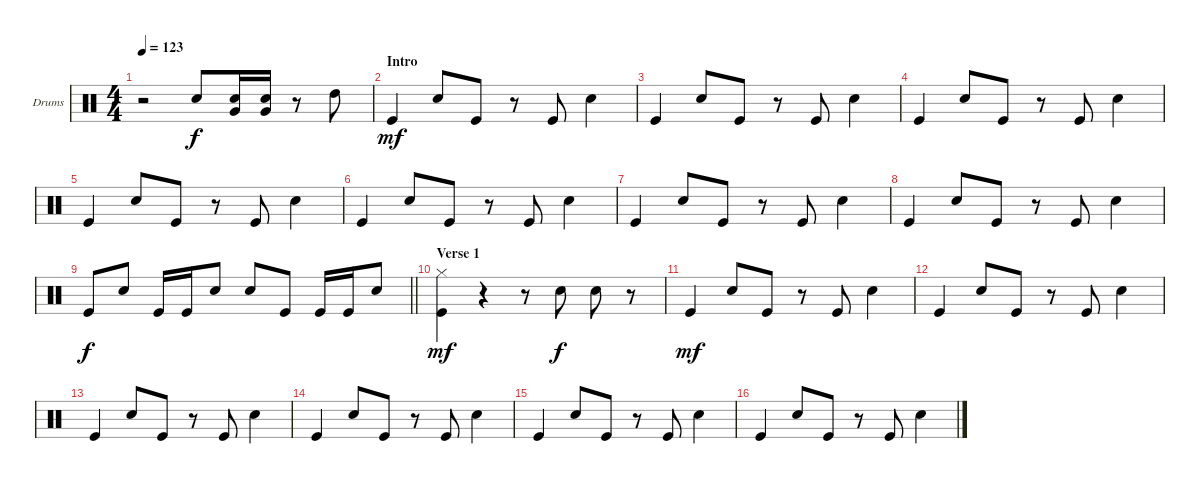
\defaultSystemsLayout 4
\bracketExtendMode groupsimilarinstruments
\firstSystemTrackNameOrientation horizontal
\otherSystemsTrackNameOrientation horizontal
\track ("Drumkit" "Drums") {instrument percussion}
\staff {score}
\articulation defaults
\ts (4 4)
\tempo 123
\clef neutral
\ks c
r.2{dy f} "Snare (hit) 2".8 ("Snare (hit) 2" "Very Low Tom (hit)").16 ("Snare (hit) 2" "Very Low Tom (hit)").16 r.8 "High Tom (hit)".8 |
\section ("" "Intro")
"Kick (hit)".4{dy mf} "Snare (hit) 2".8 "Kick (hit)".8 r.8 "Kick (hit)".8 "Snare (hit) 2".4 |
"Kick (hit)".4 "Snare (hit) 2".8 "Kick (hit)".8 r.8 "Kick (hit)".8 "Snare (hit) 2".4 |
"Kick (hit)".4 "Snare (hit) 2".8 "Kick (hit)".8 r.8 "Kick (hit)".8 "Snare (hit) 2".4 |
"Kick (hit)".4 "Snare (hit) 2".8 "Kick (hit)".8 r.8 "Kick (hit)".8 "Snare (hit) 2".4 |
"Kick (hit)".4 "Snare (hit) 2".8 "Kick (hit)".8 r.8 "Kick (hit)".8 "Snare (hit) 2".4 |
"Kick (hit)".4 "Snare (hit) 2".8 "Kick (hit)".8 r.8 "Kick (hit)".8 "Snare (hit) 2".4 |
"Kick (hit)".4 "Snare (hit) 2".8 "Kick (hit)".8 r.8 "Kick (hit)".8 "Snare (hit) 2".4 |
\barLineRight lightlight "Kick (hit)".8{dy f} "Snare (hit) 2".8 "Kick (hit)".16 "Kick (hit)".16 "Snare (hit) 2".8 "Snare (hit) 2".8 "Kick (hit)".8 "Kick (hit)".16 "Kick (hit)".16 "Snare (hit) 2".8
|
\section ("" "Verse 1")
("Kick (hit)" "Hi-Hat (closed)").4{dy mf} r.4 r.8 "Snare (hit) 2".8{dy f} "Snare (hit) 2".8 r.8 |
"Kick (hit)".4{dy mf} "Snare (hit) 2".8 "Kick (hit)".8 r.8 "Kick (hit)".8 "Snare (hit) 2".4 |
"Kick (hit)".4 "Snare (hit) 2".8 "Kick (hit)".8 r.8 "Kick (hit)".8 "Snare (hit) 2".4 |
"Kick (hit)".4 "Snare (hit) 2".8 "Kick (hit)".8 r.8 "Kick (hit)".8 "Snare (hit) 2".4 |
"Kick (hit)".4 "Snare (hit) 2".8 "Kick (hit)".8 r.8 "Kick (hit)".8 "Snare (hit) 2".4 |
"Kick (hit)".4 "Snare (hit) 2".8 "Kick (hit)".8 r.8 "Kick (hit)".8 "Snare (hit) 2".4 |
"Kick (hit)".4 "Snare (hit) 2".8 "Kick (hit)".8 r.8 "Kick (hit)".8 "Snare (hit) 2".4
